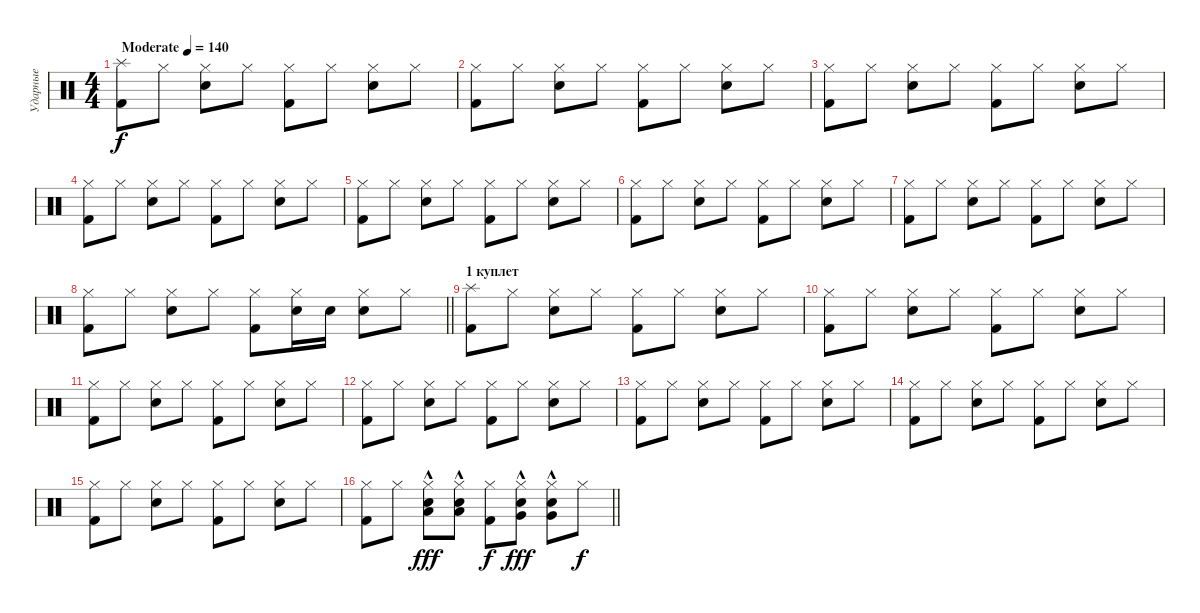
\track ("Ударные" "Ударные") {instrument percussion}
\staff {score}
\articulation defaults
\ts (4 4)
\tempo (140 "Moderate")
\clef neutral
\ks c
("Splash (hit)" "Kick (hit) 2").8{dy f} "Hi-Hat (closed)".8 ("Hi-Hat (closed)" "Snare (hit) 2").8 "Hi-Hat (closed)".8 ("Hi-Hat (closed)" "Kick (hit) 2").8 "Hi-Hat (closed)".8 ("Hi-Hat (closed)" "Snare (hit) 2").8 "Hi-Hat (closed)".8 |
("Hi-Hat (closed)" "Kick (hit) 2").8 "Hi-Hat (closed)".8 ("Hi-Hat (closed)" "Snare (hit) 2").8 "Hi-Hat (closed)".8 ("Hi-Hat (closed)" "Kick (hit) 2").8 "Hi-Hat (closed)".8 ("Hi-Hat (closed)" "Snare (hit) 2").8 "Hi-Hat (closed)".8 |
("Hi-Hat (closed)" "Kick (hit) 2").8 "Hi-Hat (closed)".8 ("Hi-Hat (closed)" "Snare (hit) 2").8 "Hi-Hat (closed)".8 ("Hi-Hat (closed)" "Kick (hit) 2").8 "Hi-Hat (closed)".8 ("Hi-Hat (closed)" "Snare (hit) 2").8 "Hi-Hat (closed)".8 |
("Hi-Hat (closed)" "Kick (hit) 2").8 "Hi-Hat (closed)".8 ("Hi-Hat (closed)" "Snare (hit) 2").8 "Hi-Hat (closed)".8 ("Hi-Hat (closed)" "Kick (hit) 2").8 "Hi-Hat (closed)".8 ("Hi-Hat (closed)" "Snare (hit) 2").8 "Hi-Hat (closed)".8 |
("Hi-Hat (closed)" "Kick (hit) 2").8 "Hi-Hat (closed)".8 ("Hi-Hat (closed)" "Snare (hit) 2").8 "Hi-Hat (closed)".8 ("Hi-Hat (closed)" "Kick (hit) 2").8 "Hi-Hat (closed)".8 ("Hi-Hat (closed)" "Snare (hit) 2").8 "Hi-Hat (closed)".8 |
("Hi-Hat (closed)" "Kick (hit) 2").8 "Hi-Hat (closed)".8 ("Hi-Hat (closed)" "Snare (hit) 2").8 "Hi-Hat (closed)".8 ("Hi-Hat (closed)" "Kick (hit) 2").8 "Hi-Hat (closed)".8 ("Hi-Hat (closed)" "Snare (hit) 2").8 "Hi-Hat (closed)".8 |
("Hi-Hat (closed)" "Kick (hit) 2").8 "Hi-Hat (closed)".8 ("Hi-Hat (closed)" "Snare (hit) 2").8 "Hi-Hat (closed)".8 ("Hi-Hat (closed)" "Kick (hit) 2").8 "Hi-Hat (closed)".8 ("Hi-Hat (closed)" "Snare (hit) 2").8 "Hi-Hat (closed)".8 |
\barLineRight lightlight
("Hi-Hat (closed)" "Kick (hit) 2").8 "Hi-Hat (closed)".8 ("Hi-Hat (closed)" "Snare (hit) 2").8 "Hi-Hat (closed)".8 ("Hi-Hat (closed)" "Kick (hit) 2").8 ("Hi-Hat (closed)" "Snare (hit) 2").16 "Snare (hit) 2".16 ("Hi-Hat (closed)" "Snare (hit) 2").8 "Hi-Hat (closed)".8 |
\section ("" "1 куплет")
("Splash (hit)" "Kick (hit) 2").8 "Hi-Hat (closed)".8 ("Hi-Hat (closed)" "Snare (hit) 2").8 "Hi-Hat (closed)".8 ("Hi-Hat (closed)" "Kick (hit) 2").8 "Hi-Hat (closed)".8 ("Hi-Hat (closed)" "Snare (hit) 2").8 "Hi-Hat (closed)".8 |
("Hi-Hat (closed)" "Kick (hit) 2").8 "Hi-Hat (closed)".8 ("Hi-Hat (closed)" "Snare (hit) 2").8 "Hi-Hat (closed)".8 ("Hi-Hat (closed)" "Kick (hit) 2").8 "Hi-Hat (closed)".8 ("Hi-Hat (closed)" "Snare (hit) 2").8 "Hi-Hat (closed)".8 |
("Hi-Hat (closed)" "Kick (hit) 2").8 "Hi-Hat (closed)".8 ("Hi-Hat (closed)" "Snare (hit) 2").8 "Hi-Hat (closed)".8 ("Hi-Hat (closed)" "Kick (hit) 2").8 "Hi-Hat (closed)".8 ("Hi-Hat (closed)" "Snare (hit) 2").8 "Hi-Hat (closed)".8 |
("Hi-Hat (closed)" "Kick (hit) 2").8 "Hi-Hat (closed)".8 ("Hi-Hat (closed)" "Snare (hit) 2").8 "Hi-Hat (closed)".8 ("Hi-Hat (closed)" "Kick (hit) 2").8 "Hi-Hat (closed)".8 ("Hi-Hat (closed)" "Snare (hit) 2").8 "Hi-Hat (closed)".8 |
("Hi-Hat (closed)" "Kick (hit) 2").8 "Hi-Hat (closed)".8 ("Hi-Hat (closed)" "Snare (hit) 2").8 "Hi-Hat (closed)".8 ("Hi-Hat (closed)" "Kick (hit) 2").8 "Hi-Hat (closed)".8 ("Hi-Hat (closed)" "Snare (hit) 2").8 "Hi-Hat (closed)".8 |
("Hi-Hat (closed)" "Kick (hit) 2").8 "Hi-Hat (closed)".8 ("Hi-Hat (closed)" "Snare (hit) 2").8 "Hi-Hat (closed)".8 ("Hi-Hat (closed)" "Kick (hit) 2").8 "Hi-Hat (closed)".8 ("Hi-Hat (closed)" "Snare (hit) 2").8 "Hi-Hat (closed)".8 |
("Hi-Hat (closed)" "Kick (hit) 2").8 "Hi-Hat (closed)".8 ("Hi-Hat (closed)" "Snare (hit) 2").8 "Hi-Hat (closed)".8 ("Hi-Hat (closed)" "Kick (hit) 2").8 "Hi-Hat (closed)".8 ("Hi-Hat (closed)" "Snare (hit) 2").8 "Hi-Hat (closed)".8 |
\barLineRight lightlight
("Hi-Hat (closed)" "Kick (hit) 2").8 "Hi-Hat (closed)".8 ("Hi-Hat (closed)" "Snare (hit) 2"{hac} "Low Tom (hit)"{hac}).8{dy fff} ("Hi-Hat (closed)" "Snare (hit) 2"{hac} "Low Tom (hit)"{hac}).8 ("Hi-Hat (closed)" "Kick (hit) 2").8{dy f} ("Hi-Hat (closed)" "Snare (hit) 2"{hac} "Very Low Tom (hit)"{hac}).8{dy fff} ("Hi-Hat (closed)" "Snare (hit) 2"{hac} "Very Low Tom (hit)"{hac}).8 "Hi-Hat (closed)".8{dy f}
